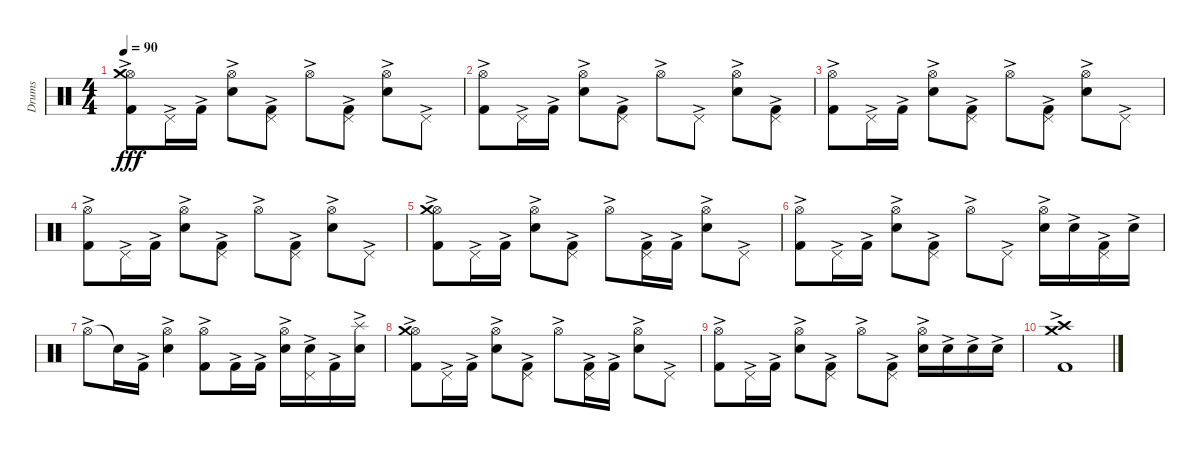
\track ("Drums" "Drums") {instrument percussion}
\staff {score}
\articulation defaults
\ts (4 4)
\tempo 90
\clef neutral
\ks c
("Hi-Hat (open)"{ac} "Crash medium (hit)"{ac} "Kick (hit) 2"{ac}).8{dy fff} "Pedal Hi-Hat (hit)"{ac}.16 "Kick (hit) 2"{ac}.16 ("Hi-Hat (open)"{ac} "Snare (hit) 2"{ac}).8 ("Pedal Hi-Hat (hit)"{ac} "Kick (hit) 2"{ac}).8 "Hi-Hat (open)"{ac}.8 ("Pedal Hi-Hat (hit)"{ac} "Kick (hit) 2"{ac}).8 ("Hi-Hat (open)"{ac} "Snare (hit) 2"{ac}).8 "Pedal Hi-Hat (hit)"{ac}.8 |
("Hi-Hat (open)"{ac} "Kick (hit) 2"{ac}).8 "Pedal Hi-Hat (hit)"{ac}.16 "Kick (hit) 2"{ac}.16 ("Hi-Hat (open)"{ac} "Snare (hit) 2"{ac}).8 ("Pedal Hi-Hat (hit)"{ac} "Kick (hit) 2"{ac}).8 "Hi-Hat (open)"{ac}.8 "Pedal Hi-Hat (hit)"{ac}.8 ("Hi-Hat (open)"{ac} "Snare (hit) 2"{ac}).8 ("Pedal Hi-Hat (hit)"{ac} "Kick (hit) 2"{ac}).8 |
("Hi-Hat (open)"{ac} "Kick (hit) 2"{ac}).8 "Pedal Hi-Hat (hit)"{ac}.16 "Kick (hit) 2"{ac}.16 ("Hi-Hat (open)"{ac} "Snare (hit) 2"{ac}).8 ("Pedal Hi-Hat (hit)"{ac} "Kick (hit) 2"{ac}).8 "Hi-Hat (open)"{ac}.8 ("Pedal Hi-Hat (hit)"{ac} "Kick (hit) 2"{ac}).8 ("Hi-Hat (open)"{ac} "Snare (hit) 2"{ac}).8 "Pedal Hi-Hat (hit)"{ac}.8 |
("Hi-Hat (open)"{ac} "Kick (hit) 2"{ac}).8 "Pedal Hi-Hat (hit)"{ac}.16 "Kick (hit) 2"{ac}.16 ("Hi-Hat (open)"{ac} "Snare (hit) 2"{ac}).8 ("Pedal Hi-Hat (hit)"{ac} "Kick (hit) 2"{ac}).8 "Hi-Hat (open)"{ac}.8 ("Pedal Hi-Hat (hit)"{ac} "Kick (hit) 2"{ac}).8 ("Hi-Hat (open)"{ac} "Snare (hit) 2"{ac}).8 "Pedal Hi-Hat (hit)"{ac}.8 |
("Hi-Hat (open)"{ac} "Crash medium (hit)"{ac} "Kick (hit) 2"{ac}).8 "Pedal Hi-Hat (hit)"{ac}.16 "Kick (hit) 2"{ac}.16 ("Hi-Hat (open)"{ac} "Snare (hit) 2"{ac}).8 ("Pedal Hi-Hat (hit)"{ac} "Kick (hit) 2"{ac}).8 "Hi-Hat (open)"{ac}.8 ("Pedal Hi-Hat (hit)"{ac} "Kick (hit) 2"{ac}).16 "Kick (hit) 2"{ac}.16 ("Hi-Hat (open)"{ac} "Snare (hit) 2"{ac}).8 "Pedal Hi-Hat (hit)"{ac}.8 |
("Hi-Hat (open)"{ac} "Kick (hit) 2"{ac}).8 "Pedal Hi-Hat (hit)"{ac}.16 "Kick (hit) 2"{ac}.16 ("Hi-Hat (open)"{ac} "Snare (hit) 2"{ac}).8 ("Pedal Hi-Hat (hit)"{ac} "Kick (hit) 2"{ac}).8 "Hi-Hat (open)"{ac}.8 "Pedal Hi-Hat (hit)"{ac}.8 ("Hi-Hat (open)"{ac} "Snare (hit) 2"{ac}).16 "Snare (hit) 2"{ac}.16 ("Pedal Hi-Hat (hit)"{ac} "Kick (hit) 2"{ac}).16 "Snare (hit) 2"{ac}.16 |
"Hi-Hat (open)"{ac}.8 "Snare (hit)"{t}.16 "Kick (hit) 2"{ac}.16 ("Hi-Hat (open)"{ac} "Snare (hit) 2"{ac}).4 ("Hi-Hat (open)"{ac} "Kick (hit) 2"{ac}).8 "Kick (hit) 2"{ac}.16 "Kick (hit) 2"{ac}.16 ("Hi-Hat (open)"{ac} "Snare (hit) 2"{ac}).16 ("Pedal Hi-Hat (hit)"{ac} "Snare (hit) 2"{ac}).16 "Kick (hit) 2"{ac}.16 ("Splash (hit)"{ac} "Snare (hit) 2"{ac}).16 |
("Hi-Hat (open)"{ac} "Crash medium (hit)"{ac} "Kick (hit) 2"{ac}).8 "Pedal Hi-Hat (hit)"{ac}.16 "Kick (hit) 2"{ac}.16 ("Hi-Hat (open)"{ac} "Snare (hit) 2"{ac}).8 ("Pedal Hi-Hat (hit)"{ac} "Kick (hit) 2"{ac}).8 "Hi-Hat (open)"{ac}.8 ("Pedal Hi-Hat (hit)"{ac} "Kick (hit) 2"{ac}).16 "Kick (hit) 2"{ac}.16 ("Hi-Hat (open)"{ac} "Snare (hit) 2"{ac}).8 "Pedal Hi-Hat (hit)"{ac}.8 |
("Hi-Hat (open)"{ac} "Kick (hit) 2"{ac}).8 "Pedal Hi-Hat (hit)"{ac}.16 "Kick (hit) 2"{ac}.16 ("Hi-Hat (open)"{ac} "Snare (hit) 2"{ac}).8 ("Pedal Hi-Hat (hit)"{ac} "Kick (hit) 2"{ac}).8 "Hi-Hat (open)"{ac}.8 ("Pedal Hi-Hat (hit)"{ac} "Kick (hit) 2"{ac}).8 ("Hi-Hat (open)"{ac} "Snare (hit) 2"{ac}).16 "Snare (hit) 2"{ac}.16 "Snare (hit) 2"{ac}.16 "Snare (hit) 2"{ac}.16 |
("Crash medium (hit)"{ac} "Crash high (hit)"{ac} "Kick (hit) 2"{ac}).1
